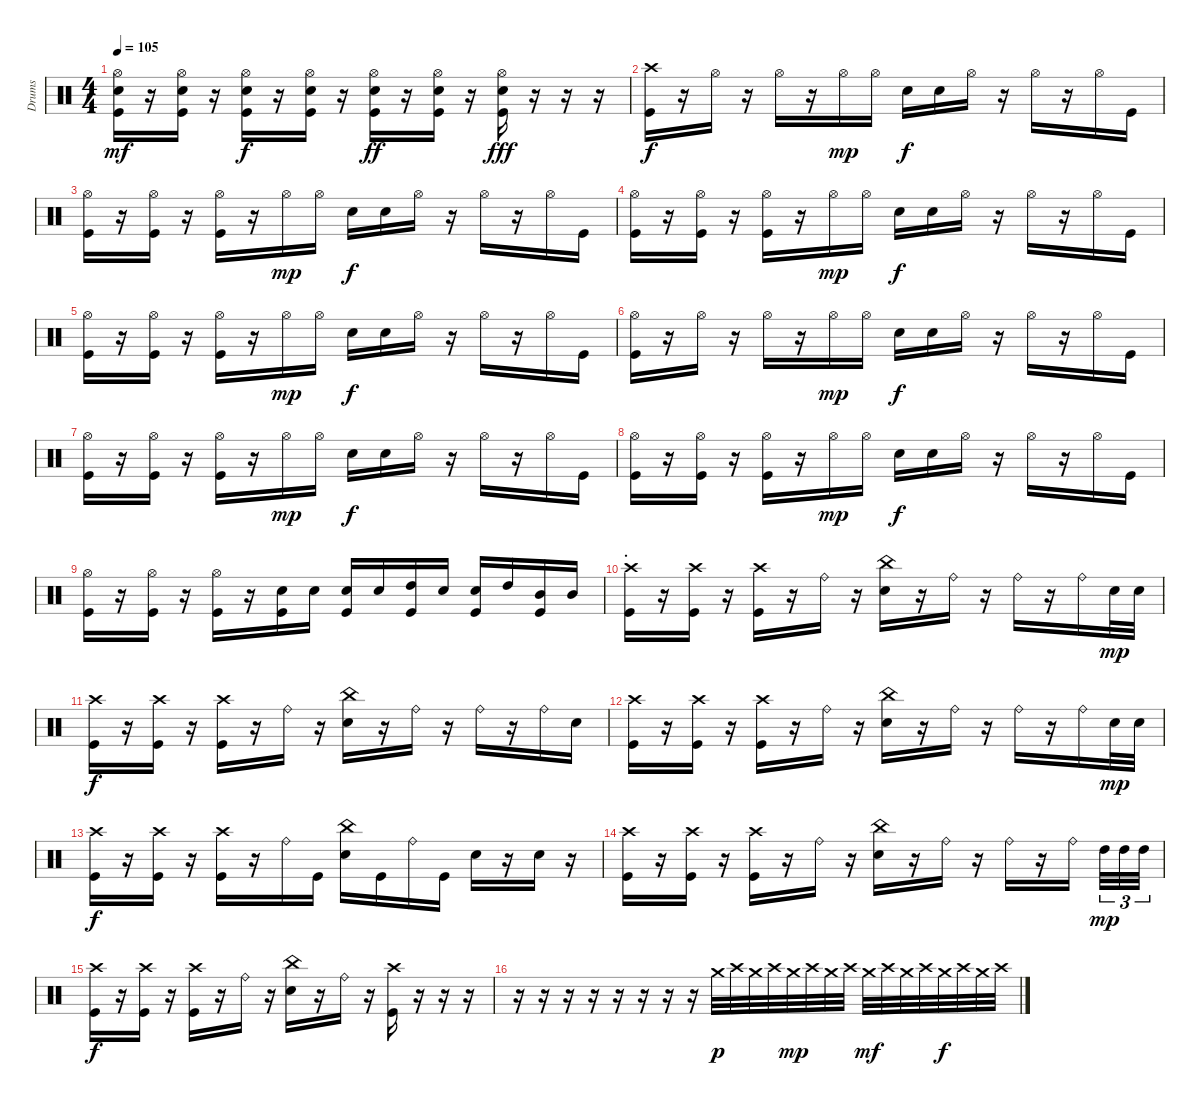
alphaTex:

\track ("Drums" "Drums") {instrument percussion}
\staff {score}
\articulation defaults
\ts (4 4)
\tempo 105
\clef neutral
\ks c
("Hi-Hat (open)" "Snare (hit) 2" "Kick (hit)").16{dy mf} r.16 ("Hi-Hat (open)" "Snare (hit) 2" "Kick (hit)").16 r.16 ("Hi-Hat (open)" "Snare (hit) 2" "Kick (hit)").16{dy f} r.16 ("Hi-Hat (open)" "Snare (hit) 2" "Kick (hit)").16 r.16 ("Hi-Hat (open)" "Snare (hit) 2" "Kick (hit)").16{dy ff} r.16 ("Hi-Hat (open)" "Snare (hit) 2" "Kick (hit)").16 r.16 ("Hi-Hat (open)" "Snare (hit) 2" "Kick (hit)").16{dy fff} r.16 r.16 r.16 |
\section ("" ".")
("Crash high (hit)" "Kick (hit)").16{dy f} r.16 "Hi-Hat (open)".16 r.16 "Hi-Hat (open)".16 r.16 "Hi-Hat (open)".16{dy mp} "Hi-Hat (open)".16 "Snare (hit) 2".16{dy f} "Snare (hit) 2".16 "Hi-Hat (open)".16 r.16 "Hi-Hat (open)".16 r.16 "Hi-Hat (open)".16 "Kick (hit)".16 |
("Hi-Hat (open)" "Kick (hit)").16 r.16 ("Hi-Hat (open)" "Kick (hit)").16 r.16 ("Hi-Hat (open)" "Kick (hit)").16 r.16 "Hi-Hat (open)".16{dy mp} "Hi-Hat (open)".16 "Snare (hit) 2".16{dy f} "Snare (hit) 2".16 "Hi-Hat (open)".16 r.16 "Hi-Hat (open)".16 r.16 "Hi-Hat (open)".16 "Kick (hit)".16 |
("Hi-Hat (open)" "Kick (hit)").16 r.16 ("Hi-Hat (open)" "Kick (hit)").16 r.16 ("Hi-Hat (open)" "Kick (hit)").16 r.16 "Hi-Hat (open)".16{dy mp} "Hi-Hat (open)".16 "Snare (hit) 2".16{dy f} "Snare (hit) 2".16 "Hi-Hat (open)".16 r.16 "Hi-Hat (open)".16 r.16 "Hi-Hat (open)".16 "Kick (hit)".16 |
("Hi-Hat (open)" "Kick (hit)").16 r.16 ("Hi-Hat (open)" "Kick (hit)").16 r.16 ("Hi-Hat (open)" "Kick (hit)").16 r.16 "Hi-Hat (open)".16{dy mp} "Hi-Hat (open)".16 "Snare (hit) 2".16{dy f} "Snare (hit) 2".16 "Hi-Hat (open)".16 r.16 "Hi-Hat (open)".16 r.16 "Hi-Hat (open)".16 "Kick (hit)".16 |
("Hi-Hat (open)" "Kick (hit)").16 r.16 "Hi-Hat (open)".16 r.16 "Hi-Hat (open)".16 r.16 "Hi-Hat (open)".16{dy mp} "Hi-Hat (open)".16 "Snare (hit) 2".16{dy f} "Snare (hit) 2".16 "Hi-Hat (open)".16 r.16 "Hi-Hat (open)".16 r.16 "Hi-Hat (open)".16 "Kick (hit)".16 |
("Hi-Hat (open)" "Kick (hit)").16 r.16 ("Hi-Hat (open)" "Kick (hit)").16 r.16 ("Hi-Hat (open)" "Kick (hit)").16 r.16 "Hi-Hat (open)".16{dy mp} "Hi-Hat (open)".16 "Snare (hit) 2".16{dy f} "Snare (hit) 2".16 "Hi-Hat (open)".16 r.16 "Hi-Hat (open)".16 r.16 "Hi-Hat (open)".16 "Kick (hit)".16 |
("Hi-Hat (open)" "Kick (hit)").16 r.16 ("Hi-Hat (open)" "Kick (hit)").16 r.16 ("Hi-Hat (open)" "Kick (hit)").16 r.16 "Hi-Hat (open)".16{dy mp} "Hi-Hat (open)".16 "Snare (hit) 2".16{dy f} "Snare (hit) 2".16 "Hi-Hat (open)".16 r.16 "Hi-Hat (open)".16 r.16 "Hi-Hat (open)".16 "Kick (hit)".16 |
("Hi-Hat (open)" "Kick (hit)").16 r.16 ("Hi-Hat (open)" "Kick (hit)").16 r.16 ("Hi-Hat (open)" "Kick (hit)").16 r.16 ("Snare (hit) 2" "Kick (hit)").16 "Snare (hit) 2".16 ("Snare (hit) 2" "Kick (hit)").16 "Snare (hit) 2".16 ("High Tom (hit)" "Kick (hit)").16 "Snare (hit) 2".16 ("Snare (hit) 2" "Kick (hit)").16 "High Tom (hit)".16 ("Mid Tom (hit)" "Kick (hit)").16 "Mid Tom (hit)".16 |
\section ("" ".")
("Crash high (hit)" "Kick (hit)").16 r.16 ("Crash high (hit)" "Kick (hit)").16 r.16 ("Crash high (hit)" "Kick (hit)").16 r.16 "Ride (bell)".16 r.16 ("China (hit)" "Snare (hit) 2").16 r.16 "Ride (bell)".16 r.16 "Ride (bell)".16 r.16 "Ride (bell)".16 "Snare (hit) 2".32{dy mp} "Snare (hit) 2".32 |
("Crash high (hit)" "Kick (hit)").16{dy f} r.16 ("Crash high (hit)" "Kick (hit)").16 r.16 ("Crash high (hit)" "Kick (hit)").16 r.16 "Ride (bell)".16 r.16 ("China (hit)" "Snare (hit) 2").16 r.16 "Ride (bell)".16 r.16 "Ride (bell)".16 r.16 "Ride (bell)".16 "Snare (hit) 2".16 |
("Crash high (hit)" "Kick (hit)").16 r.16 ("Crash high (hit)" "Kick (hit)").16 r.16 ("Crash high (hit)" "Kick (hit)").16 r.16 "Ride (bell)".16 r.16 ("China (hit)" "Snare (hit) 2").16 r.16 "Ride (bell)".16 r.16 "Ride (bell)".16 r.16 "Ride (bell)".16 "Snare (hit) 2".32{dy mp} "Snare (hit) 2".32 |
("Crash high (hit)" "Kick (hit)").16{dy f} r.16 ("Crash high (hit)" "Kick (hit)").16 r.16 ("Crash high (hit)" "Kick (hit)").16 r.16 "Ride (bell)".16 "Kick (hit)".16 ("China (hit)" "Snare (hit) 2").16 "Kick (hit)".16 "Ride (bell)".16 "Kick (hit)".16 "Snare (hit) 2".16 r.16 "Snare (hit) 2".16 r.16 |
("Crash high (hit)" "Kick (hit)").16 r.16 ("Crash high (hit)" "Kick (hit)").16 r.16 ("Crash high (hit)" "Kick (hit)").16 r.16 "Ride (bell)".16 r.16 ("China (hit)" "Snare (hit) 2").16 r.16 "Ride (bell)".16 r.16 "Ride (bell)".16 r.16 "Ride (bell)".16 "High Tom (hit)".32{tu (3 2) dy mp} "High Tom (hit)".32{tu (3 2)} "High Tom (hit)".32{tu (3 2)} |
("Crash high (hit)" "Kick (hit)").16{dy f} r.16 ("Crash high (hit)" "Kick (hit)").16 r.16 ("Crash high (hit)" "Kick (hit)").16 r.16 "Ride (bell)".16 r.16 ("China (hit)" "Snare (hit) 2").16 r.16 "Ride (bell)".16 r.16 ("Crash high (hit)" "Kick (hit)").16 r.16 r.16 r.16 |
r.16 r.16 r.16 r.16 r.16 r.16 r.16 r.16 "Crash medium (hit)".32{dy p} "Crash high (hit)".32 "Crash medium (hit)".32 "Crash high (hit)".32 "Crash medium (hit)".32{dy mp} "Crash high (hit)".32 "Crash medium (hit)".32 "Crash high (hit)".32 "Crash medium (hit)".32{dy mf} "Crash high (hit)".32 "Crash medium (hit)".32 "Crash high (hit)".32 "Crash medium (hit)".32{dy f} "Crash high (hit)".32 "Crash medium (hit)".32 "Crash high (hit)".32
